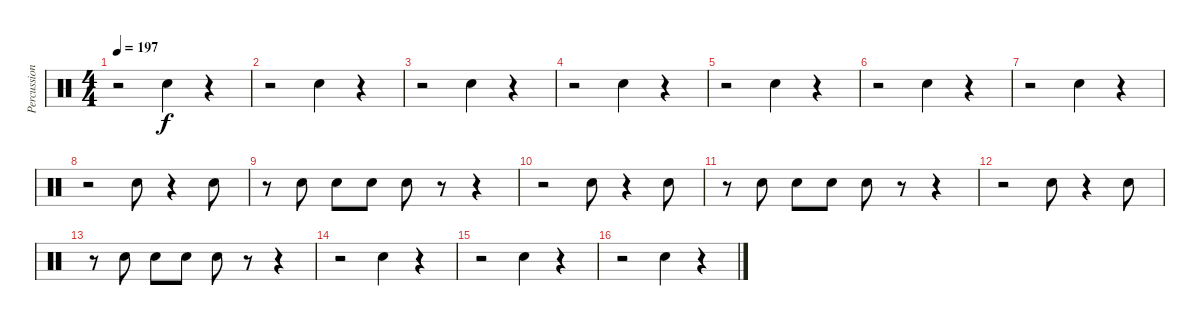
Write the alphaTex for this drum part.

\track ("Percussion" "Percussion") {instrument percussion}
\staff {score}
\articulation defaults
\ts (4 4)
\tempo 197
\clef neutral
\ks c
r.2{dy f} "Electric Snare (hit)".4 r.4 |
r.2 "Electric Snare (hit)".4 r.4 |
r.2 "Electric Snare (hit)".4 r.4 |
r.2 "Electric Snare (hit)".4 r.4 |
r.2 "Electric Snare (hit)".4 r.4 |
r.2 "Electric Snare (hit)".4 r.4 |
r.2 "Electric Snare (hit)".4 r.4 |
r.2 "Electric Snare (hit)".8 r.4 "Electric Snare (hit)".8 |
r.8 "Electric Snare (hit)".8 "Electric Snare (hit)".8 "Electric Snare (hit)".8 "Electric Snare (hit)".8 r.8 r.4 |
r.2 "Electric Snare (hit)".8 r.4 "Electric Snare (hit)".8 |
r.8 "Electric Snare (hit)".8 "Electric Snare (hit)".8 "Electric Snare (hit)".8 "Electric Snare (hit)".8 r.8 r.4 |
r.2 "Electric Snare (hit)".8 r.4 "Electric Snare (hit)".8 |
r.8 "Electric Snare (hit)".8 "Electric Snare (hit)".8 "Electric Snare (hit)".8 "Electric Snare (hit)".8 r.8 r.4 |
r.2 "Electric Snare (hit)".4 r.4 |
r.2 "Electric Snare (hit)".4 r.4 |
r.2 "Electric Snare (hit)".4 r.4
